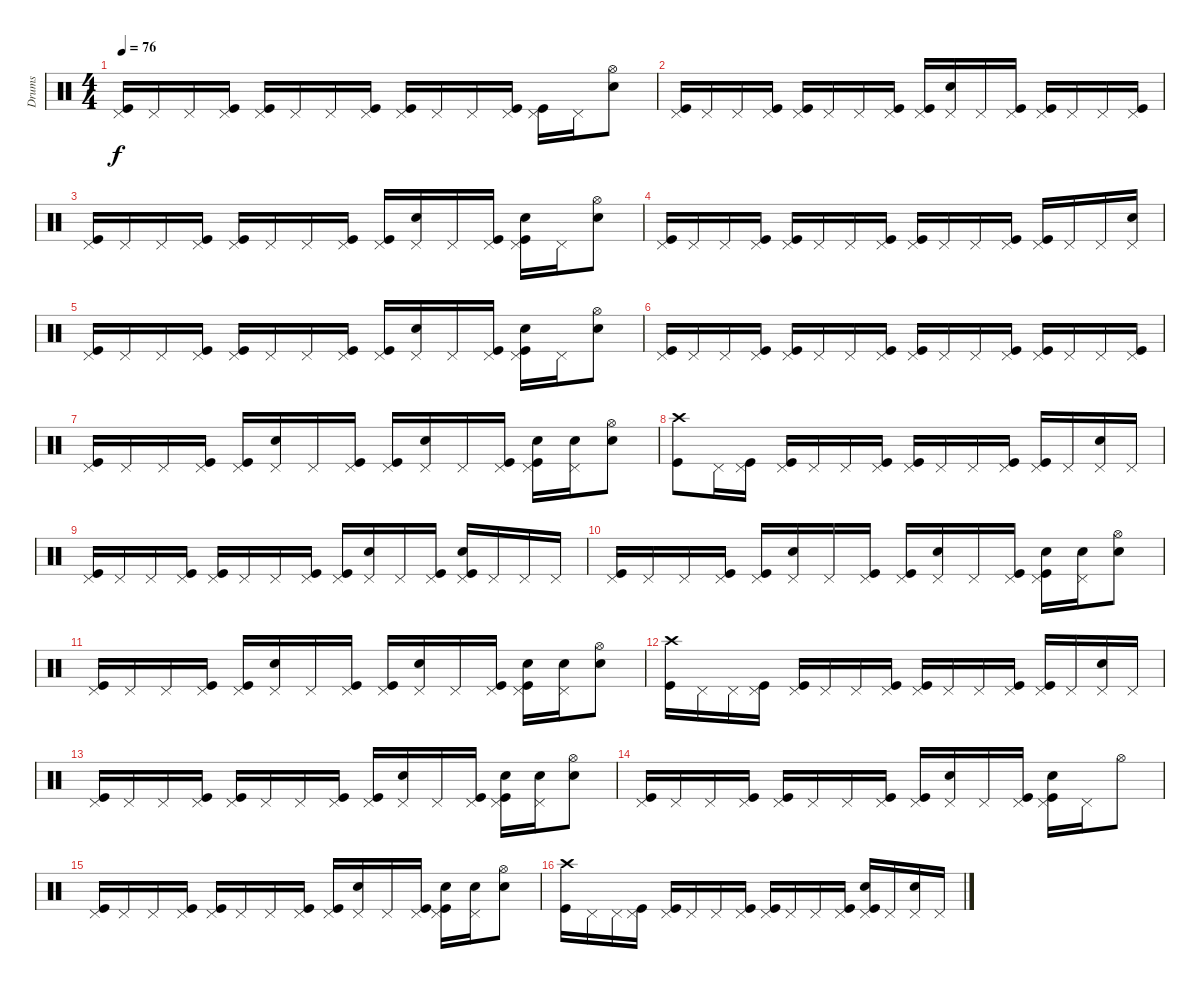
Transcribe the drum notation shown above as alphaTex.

\track ("Drums" "Drums") {instrument percussion}
\staff {score}
\articulation defaults
\ts (4 4)
\tempo 76
\clef neutral
\ks c
("Kick (hit)" "Pedal Hi-Hat (hit)").16{dy f} "Pedal Hi-Hat (hit)".16 "Pedal Hi-Hat (hit)".16 ("Pedal Hi-Hat (hit)" "Kick (hit)").16 ("Pedal Hi-Hat (hit)" "Kick (hit)").16 "Pedal Hi-Hat (hit)".16 "Pedal Hi-Hat (hit)".16 ("Pedal Hi-Hat (hit)" "Kick (hit)").16 ("Pedal Hi-Hat (hit)" "Kick (hit)").16 "Pedal Hi-Hat (hit)".16 "Pedal Hi-Hat (hit)".16 ("Pedal Hi-Hat (hit)" "Kick (hit)").16 ("Pedal Hi-Hat (hit)" "Kick (hit)").16 "Pedal Hi-Hat (hit)".16 ("Hi-Hat (open)" "Electric Snare (hit)").8 |
("Kick (hit)" "Pedal Hi-Hat (hit)").16 "Pedal Hi-Hat (hit)".16 "Pedal Hi-Hat (hit)".16 ("Pedal Hi-Hat (hit)" "Kick (hit)").16 ("Pedal Hi-Hat (hit)" "Kick (hit)").16 "Pedal Hi-Hat (hit)".16 "Pedal Hi-Hat (hit)".16 ("Pedal Hi-Hat (hit)" "Kick (hit)").16 ("Pedal Hi-Hat (hit)" "Kick (hit)").16 ("Pedal Hi-Hat (hit)" "Electric Snare (hit)").16 "Pedal Hi-Hat (hit)".16 ("Pedal Hi-Hat (hit)" "Kick (hit)").16 ("Pedal Hi-Hat (hit)" "Kick (hit)").16 "Pedal Hi-Hat (hit)".16 "Pedal Hi-Hat (hit)".16 ("Pedal Hi-Hat (hit)" "Kick (hit)").16 |
("Pedal Hi-Hat (hit)" "Kick (hit)").16 "Pedal Hi-Hat (hit)".16 "Pedal Hi-Hat (hit)".16 ("Pedal Hi-Hat (hit)" "Kick (hit)").16 ("Pedal Hi-Hat (hit)" "Kick (hit)").16 "Pedal Hi-Hat (hit)".16 "Pedal Hi-Hat (hit)".16 ("Pedal Hi-Hat (hit)" "Kick (hit)").16 ("Pedal Hi-Hat (hit)" "Kick (hit)").16 ("Pedal Hi-Hat (hit)" "Electric Snare (hit)").16 "Pedal Hi-Hat (hit)".16 ("Pedal Hi-Hat (hit)" "Kick (hit)").16 ("Pedal Hi-Hat (hit)" "Kick (hit)" "Electric Snare (hit)").16 "Pedal Hi-Hat (hit)".16 ("Electric Snare (hit)" "Hi-Hat (open)").8 |
("Kick (hit)" "Pedal Hi-Hat (hit)").16 "Pedal Hi-Hat (hit)".16 "Pedal Hi-Hat (hit)".16 ("Pedal Hi-Hat (hit)" "Kick (hit)").16 ("Pedal Hi-Hat (hit)" "Kick (hit)").16 "Pedal Hi-Hat (hit)".16 "Pedal Hi-Hat (hit)".16 ("Pedal Hi-Hat (hit)" "Kick (hit)").16 ("Pedal Hi-Hat (hit)" "Kick (hit)").16 "Pedal Hi-Hat (hit)".16 "Pedal Hi-Hat (hit)".16 ("Pedal Hi-Hat (hit)" "Kick (hit)").16 ("Pedal Hi-Hat (hit)" "Kick (hit)").16 "Pedal Hi-Hat (hit)".16 "Pedal Hi-Hat (hit)".16 ("Pedal Hi-Hat (hit)" "Electric Snare (hit)").16 |
("Kick (hit)" "Pedal Hi-Hat (hit)").16 "Pedal Hi-Hat (hit)".16 "Pedal Hi-Hat (hit)".16 ("Pedal Hi-Hat (hit)" "Kick (hit)").16 ("Pedal Hi-Hat (hit)" "Kick (hit)").16 "Pedal Hi-Hat (hit)".16 "Pedal Hi-Hat (hit)".16 ("Pedal Hi-Hat (hit)" "Kick (hit)").16 ("Pedal Hi-Hat (hit)" "Kick (hit)").16 ("Pedal Hi-Hat (hit)" "Electric Snare (hit)").16 "Pedal Hi-Hat (hit)".16 ("Pedal Hi-Hat (hit)" "Kick (hit)").16 ("Pedal Hi-Hat (hit)" "Kick (hit)" "Electric Snare (hit)").16 "Pedal Hi-Hat (hit)".16 ("Hi-Hat (open)" "Electric Snare (hit)").8 |
("Pedal Hi-Hat (hit)" "Kick (hit)").16 "Pedal Hi-Hat (hit)".16 "Pedal Hi-Hat (hit)".16 ("Pedal Hi-Hat (hit)" "Kick (hit)").16 ("Pedal Hi-Hat (hit)" "Kick (hit)").16 "Pedal Hi-Hat (hit)".16 "Pedal Hi-Hat (hit)".16 ("Pedal Hi-Hat (hit)" "Kick (hit)").16 ("Pedal Hi-Hat (hit)" "Kick (hit)").16 "Pedal Hi-Hat (hit)".16 "Pedal Hi-Hat (hit)".16 ("Pedal Hi-Hat (hit)" "Kick (hit)").16 ("Pedal Hi-Hat (hit)" "Kick (hit)").16 "Pedal Hi-Hat (hit)".16 "Pedal Hi-Hat (hit)".16 ("Pedal Hi-Hat (hit)" "Kick (hit)").16 |
("Pedal Hi-Hat (hit)" "Kick (hit)").16 "Pedal Hi-Hat (hit)".16 "Pedal Hi-Hat (hit)".16 ("Pedal Hi-Hat (hit)" "Kick (hit)").16 ("Pedal Hi-Hat (hit)" "Kick (hit)").16 ("Pedal Hi-Hat (hit)" "Electric Snare (hit)").16 "Pedal Hi-Hat (hit)".16 ("Pedal Hi-Hat (hit)" "Kick (hit)").16 ("Pedal Hi-Hat (hit)" "Kick (hit)").16 ("Pedal Hi-Hat (hit)" "Electric Snare (hit)").16 "Pedal Hi-Hat (hit)".16 ("Pedal Hi-Hat (hit)" "Kick (hit)").16 ("Pedal Hi-Hat (hit)" "Kick (hit)" "Electric Snare (hit)").16 ("Pedal Hi-Hat (hit)" "Electric Snare (hit)").16 ("Electric Snare (hit)" "Hi-Hat (open)").8 |
("Kick (hit)" "Crash high (hit)").8 "Pedal Hi-Hat (hit)".16 ("Pedal Hi-Hat (hit)" "Kick (hit)").16 ("Pedal Hi-Hat (hit)" "Kick (hit)").16 "Pedal Hi-Hat (hit)".16 "Pedal Hi-Hat (hit)".16 ("Pedal Hi-Hat (hit)" "Kick (hit)").16 ("Pedal Hi-Hat (hit)" "Kick (hit)").16 "Pedal Hi-Hat (hit)".16 "Pedal Hi-Hat (hit)".16 ("Pedal Hi-Hat (hit)" "Kick (hit)").16 ("Pedal Hi-Hat (hit)" "Kick (hit)").16 "Pedal Hi-Hat (hit)".16 ("Pedal Hi-Hat (hit)" "Electric Snare (hit)").16 "Pedal Hi-Hat (hit)".16 |
("Kick (hit)" "Pedal Hi-Hat (hit)").16 "Pedal Hi-Hat (hit)".16 "Pedal Hi-Hat (hit)".16 ("Pedal Hi-Hat (hit)" "Kick (hit)").16 ("Pedal Hi-Hat (hit)" "Kick (hit)").16 "Pedal Hi-Hat (hit)".16 "Pedal Hi-Hat (hit)".16 ("Pedal Hi-Hat (hit)" "Kick (hit)").16 ("Pedal Hi-Hat (hit)" "Kick (hit)").16 ("Pedal Hi-Hat (hit)" "Electric Snare (hit)").16 "Pedal Hi-Hat (hit)".16 ("Pedal Hi-Hat (hit)" "Kick (hit)").16 ("Pedal Hi-Hat (hit)" "Kick (hit)" "Electric Snare (hit)").16 "Pedal Hi-Hat (hit)".16 "Pedal Hi-Hat (hit)".16 "Pedal Hi-Hat (hit)".16 |
("Kick (hit)" "Pedal Hi-Hat (hit)").16 "Pedal Hi-Hat (hit)".16 "Pedal Hi-Hat (hit)".16 ("Pedal Hi-Hat (hit)" "Kick (hit)").16 ("Pedal Hi-Hat (hit)" "Kick (hit)").16 ("Pedal Hi-Hat (hit)" "Electric Snare (hit)").16 "Pedal Hi-Hat (hit)".16 ("Pedal Hi-Hat (hit)" "Kick (hit)").16 ("Pedal Hi-Hat (hit)" "Kick (hit)").16 ("Pedal Hi-Hat (hit)" "Electric Snare (hit)").16 "Pedal Hi-Hat (hit)".16 ("Pedal Hi-Hat (hit)" "Kick (hit)").16 ("Pedal Hi-Hat (hit)" "Kick (hit)" "Electric Snare (hit)").16 ("Pedal Hi-Hat (hit)" "Electric Snare (hit)").16 ("Electric Snare (hit)" "Hi-Hat (open)").8 |
("Kick (hit)" "Pedal Hi-Hat (hit)").16 "Pedal Hi-Hat (hit)".16 "Pedal Hi-Hat (hit)".16 ("Pedal Hi-Hat (hit)" "Kick (hit)").16 ("Pedal Hi-Hat (hit)" "Kick (hit)").16 ("Pedal Hi-Hat (hit)" "Electric Snare (hit)").16 "Pedal Hi-Hat (hit)".16 ("Pedal Hi-Hat (hit)" "Kick (hit)").16 ("Pedal Hi-Hat (hit)" "Kick (hit)").16 ("Pedal Hi-Hat (hit)" "Electric Snare (hit)").16 "Pedal Hi-Hat (hit)".16 ("Pedal Hi-Hat (hit)" "Kick (hit)").16 ("Pedal Hi-Hat (hit)" "Kick (hit)" "Electric Snare (hit)").16 ("Pedal Hi-Hat (hit)" "Electric Snare (hit)").16 ("Electric Snare (hit)" "Hi-Hat (open)").8 |
("Kick (hit)" "Crash high (hit)").16 "Pedal Hi-Hat (hit)".16 "Pedal Hi-Hat (hit)".16 ("Pedal Hi-Hat (hit)" "Kick (hit)").16 ("Pedal Hi-Hat (hit)" "Kick (hit)").16 "Pedal Hi-Hat (hit)".16 "Pedal Hi-Hat (hit)".16 ("Pedal Hi-Hat (hit)" "Kick (hit)").16 ("Pedal Hi-Hat (hit)" "Kick (hit)").16 "Pedal Hi-Hat (hit)".16 "Pedal Hi-Hat (hit)".16 ("Pedal Hi-Hat (hit)" "Kick (hit)").16 ("Pedal Hi-Hat (hit)" "Kick (hit)").16 "Pedal Hi-Hat (hit)".16 ("Pedal Hi-Hat (hit)" "Electric Snare (hit)").16 "Pedal Hi-Hat (hit)".16 |
("Kick (hit)" "Pedal Hi-Hat (hit)").16 "Pedal Hi-Hat (hit)".16 "Pedal Hi-Hat (hit)".16 ("Pedal Hi-Hat (hit)" "Kick (hit)").16 ("Pedal Hi-Hat (hit)" "Kick (hit)").16 "Pedal Hi-Hat (hit)".16 "Pedal Hi-Hat (hit)".16 ("Pedal Hi-Hat (hit)" "Kick (hit)").16 ("Pedal Hi-Hat (hit)" "Kick (hit)").16 ("Pedal Hi-Hat (hit)" "Electric Snare (hit)").16 "Pedal Hi-Hat (hit)".16 ("Pedal Hi-Hat (hit)" "Kick (hit)").16 ("Pedal Hi-Hat (hit)" "Kick (hit)" "Electric Snare (hit)").16 ("Pedal Hi-Hat (hit)" "Electric Snare (hit)").16 ("Electric Snare (hit)" "Hi-Hat (open)").8 |
("Pedal Hi-Hat (hit)" "Kick (hit)").16 "Pedal Hi-Hat (hit)".16 "Pedal Hi-Hat (hit)".16 ("Pedal Hi-Hat (hit)" "Kick (hit)").16 ("Pedal Hi-Hat (hit)" "Kick (hit)").16 "Pedal Hi-Hat (hit)".16 "Pedal Hi-Hat (hit)".16 ("Pedal Hi-Hat (hit)" "Kick (hit)").16 ("Pedal Hi-Hat (hit)" "Kick (hit)").16 ("Pedal Hi-Hat (hit)" "Electric Snare (hit)").16 "Pedal Hi-Hat (hit)".16 ("Pedal Hi-Hat (hit)" "Kick (hit)").16 ("Pedal Hi-Hat (hit)" "Kick (hit)" "Electric Snare (hit)").16 "Pedal Hi-Hat (hit)".16 "Hi-Hat (open)".8 |
("Pedal Hi-Hat (hit)" "Kick (hit)").16 "Pedal Hi-Hat (hit)".16 "Pedal Hi-Hat (hit)".16 ("Pedal Hi-Hat (hit)" "Kick (hit)").16 ("Pedal Hi-Hat (hit)" "Kick (hit)").16 "Pedal Hi-Hat (hit)".16 "Pedal Hi-Hat (hit)".16 ("Pedal Hi-Hat (hit)" "Kick (hit)").16 ("Pedal Hi-Hat (hit)" "Kick (hit)").16 ("Pedal Hi-Hat (hit)" "Electric Snare (hit)").16 "Pedal Hi-Hat (hit)".16 ("Pedal Hi-Hat (hit)" "Kick (hit)").16 ("Pedal Hi-Hat (hit)" "Kick (hit)" "Electric Snare (hit)").16 ("Pedal Hi-Hat (hit)" "Electric Snare (hit)").16 ("Electric Snare (hit)" "Hi-Hat (open)").8 |
("Kick (hit)" "Crash high (hit)").16 "Pedal Hi-Hat (hit)".16 "Pedal Hi-Hat (hit)".16 ("Pedal Hi-Hat (hit)" "Kick (hit)").16 ("Pedal Hi-Hat (hit)" "Kick (hit)").16 "Pedal Hi-Hat (hit)".16 "Pedal Hi-Hat (hit)".16 ("Pedal Hi-Hat (hit)" "Kick (hit)").16 ("Pedal Hi-Hat (hit)" "Kick (hit)").16 "Pedal Hi-Hat (hit)".16 "Pedal Hi-Hat (hit)".16 ("Pedal Hi-Hat (hit)" "Kick (hit)").16 ("Pedal Hi-Hat (hit)" "Kick (hit)" "Electric Snare (hit)").16 "Pedal Hi-Hat (hit)".16 ("Pedal Hi-Hat (hit)" "Electric Snare (hit)").16 "Pedal Hi-Hat (hit)".16
